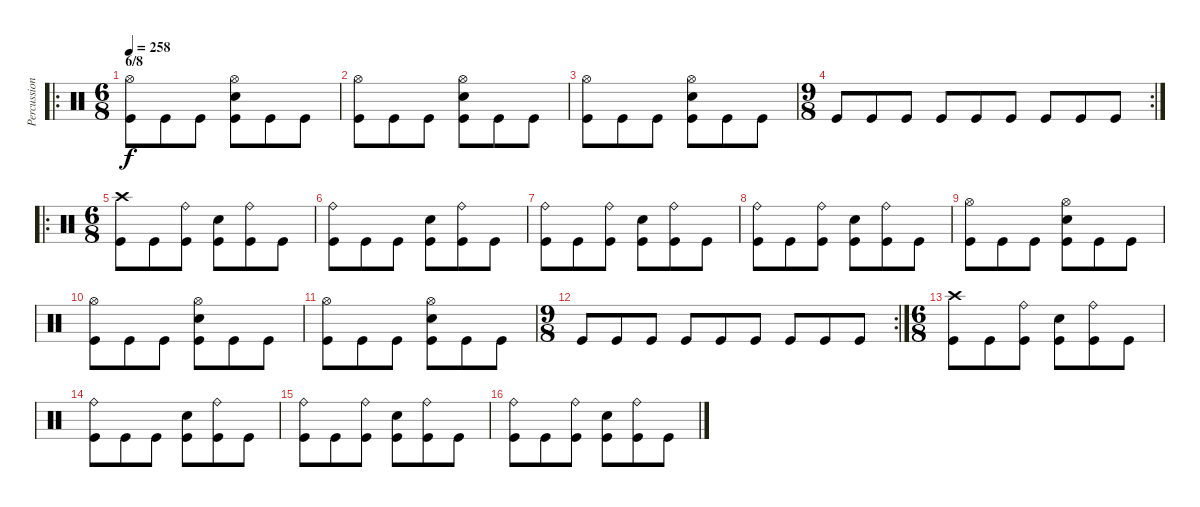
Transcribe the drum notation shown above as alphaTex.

\track ("Percussion" "Percussion") {instrument percussion}
\staff {score}
\articulation defaults
\ro
\ts (6 8)
\section ("" "6/8")
\tempo 258
\clef neutral
\ks c
("Hi-Hat (open)" "Kick (hit)").8{dy f} "Kick (hit)".8 "Kick (hit)".8 ("Snare (hit) 2" "Hi-Hat (open)" "Kick (hit)").8 "Kick (hit)".8 "Kick (hit)".8 |
("Hi-Hat (open)" "Kick (hit)").8 "Kick (hit)".8 "Kick (hit)".8 ("Snare (hit) 2" "Hi-Hat (open)" "Kick (hit)").8 "Kick (hit)".8 "Kick (hit)".8 |
("Hi-Hat (open)" "Kick (hit)").8 "Kick (hit)".8 "Kick (hit)".8 ("Snare (hit) 2" "Hi-Hat (open)" "Kick (hit)").8 "Kick (hit)".8 "Kick (hit)".8 |
\rc 2
\ts (9 8)
"Kick (hit)".8 "Kick (hit)".8 "Kick (hit)".8 "Kick (hit)".8 "Kick (hit)".8 "Kick (hit)".8 "Kick (hit)".8 "Kick (hit)".8 "Kick (hit)".8 |
\ro
\ts (6 8)
("Crash high (hit)" "Kick (hit)").8 "Kick (hit)".8 ("Ride (bell)" "Kick (hit)").8 ("Snare (hit) 2" "Kick (hit)").8 ("Ride (bell)" "Kick (hit)").8 "Kick (hit)".8 |
("Ride (bell)" "Kick (hit)").8 "Kick (hit)".8 "Kick (hit)".8 ("Snare (hit) 2" "Kick (hit)").8 ("Ride (bell)" "Kick (hit)").8 "Kick (hit)".8 |
("Ride (bell)" "Kick (hit)").8 "Kick (hit)".8 ("Ride (bell)" "Kick (hit)").8 ("Snare (hit) 2" "Kick (hit)").8 ("Ride (bell)" "Kick (hit)").8 "Kick (hit)".8 |
("Ride (bell)" "Kick (hit)").8 "Kick (hit)".8 ("Ride (bell)" "Kick (hit)").8 ("Snare (hit) 2" "Kick (hit)").8 ("Ride (bell)" "Kick (hit)").8 "Kick (hit)".8 |
("Hi-Hat (open)" "Kick (hit)").8 "Kick (hit)".8 "Kick (hit)".8 ("Snare (hit) 2" "Hi-Hat (open)" "Kick (hit)").8 "Kick (hit)".8 "Kick (hit)".8 |
("Hi-Hat (open)" "Kick (hit)").8 "Kick (hit)".8 "Kick (hit)".8 ("Snare (hit) 2" "Hi-Hat (open)" "Kick (hit)").8 "Kick (hit)".8 "Kick (hit)".8 |
("Hi-Hat (open)" "Kick (hit)").8 "Kick (hit)".8 "Kick (hit)".8 ("Snare (hit) 2" "Hi-Hat (open)" "Kick (hit)").8 "Kick (hit)".8 "Kick (hit)".8 |
\rc 2
\ts (9 8)
"Kick (hit)".8 "Kick (hit)".8 "Kick (hit)".8 "Kick (hit)".8 "Kick (hit)".8 "Kick (hit)".8 "Kick (hit)".8 "Kick (hit)".8 "Kick (hit)".8 |
\ts (6 8)
("Crash high (hit)" "Kick (hit)").8 "Kick (hit)".8 ("Ride (bell)" "Kick (hit)").8 ("Snare (hit) 2" "Kick (hit)").8 ("Ride (bell)" "Kick (hit)").8 "Kick (hit)".8 |
("Ride (bell)" "Kick (hit)").8 "Kick (hit)".8 "Kick (hit)".8 ("Snare (hit) 2" "Kick (hit)").8 ("Ride (bell)" "Kick (hit)").8 "Kick (hit)".8 |
("Ride (bell)" "Kick (hit)").8 "Kick (hit)".8 ("Ride (bell)" "Kick (hit)").8 ("Snare (hit) 2" "Kick (hit)").8 ("Ride (bell)" "Kick (hit)").8 "Kick (hit)".8 |
("Ride (bell)" "Kick (hit)").8 "Kick (hit)".8 ("Ride (bell)" "Kick (hit)").8 ("Snare (hit) 2" "Kick (hit)").8 ("Ride (bell)" "Kick (hit)").8 "Kick (hit)".8
